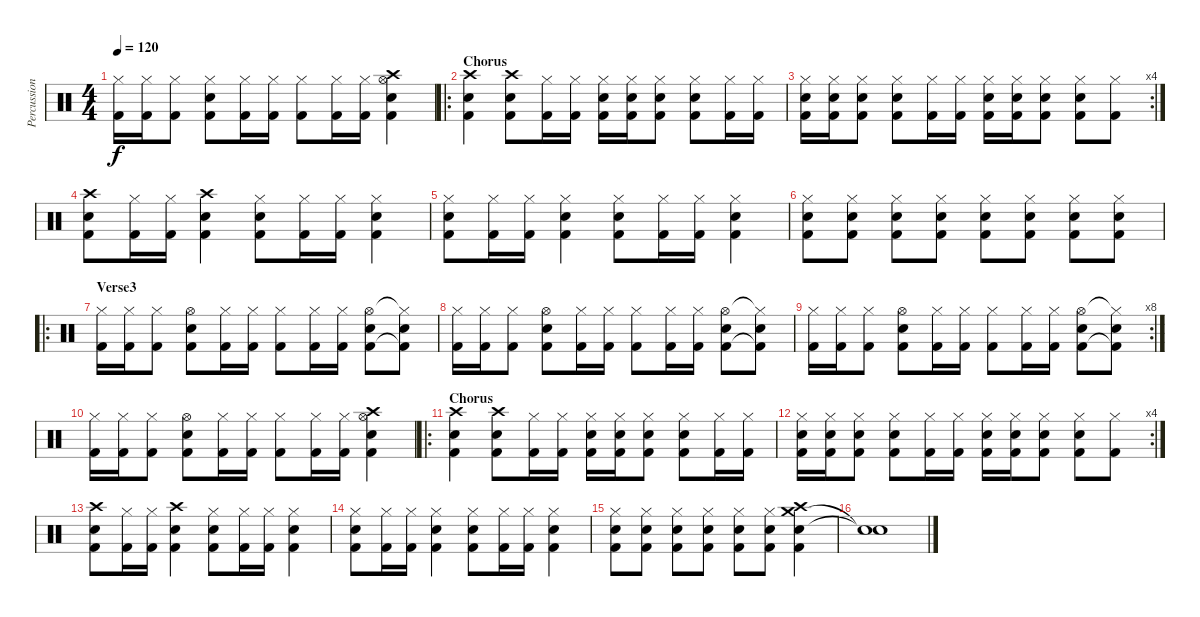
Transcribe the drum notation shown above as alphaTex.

\track ("Percussion" "Percussion") {instrument percussion}
\staff {score}
\articulation defaults
\ts (4 4)
\tempo 120
\clef neutral
\ks c
("Hi-Hat (closed)" "Kick (hit) 2").16{dy f} ("Hi-Hat (closed)" "Kick (hit) 2").16 ("Hi-Hat (closed)" "Kick (hit) 2").8 ("Hi-Hat (closed)" "Kick (hit) 2" "Electric Snare (hit)").8 ("Hi-Hat (closed)" "Kick (hit) 2").16 ("Hi-Hat (closed)" "Kick (hit) 2").16 ("Hi-Hat (closed)" "Kick (hit) 2").8 ("Hi-Hat (closed)" "Kick (hit) 2").16 ("Hi-Hat (closed)" "Kick (hit) 2").16 ("Hi-Hat (open)" "Kick (hit) 2" "Electric Snare (hit)" "Crash high (hit)").4 |
\ro
\section ("" "Chorus")
("Crash high (hit)" "Electric Snare (hit)" "Kick (hit) 2").4 ("Crash high (hit)" "Electric Snare (hit)" "Kick (hit) 2").8 ("Hi-Hat (closed)" "Kick (hit) 2").16 ("Hi-Hat (closed)" "Kick (hit) 2").16 ("Hi-Hat (closed)" "Kick (hit) 2" "Electric Snare (hit)").16 ("Hi-Hat (closed)" "Kick (hit) 2" "Electric Snare (hit)").16 ("Hi-Hat (closed)" "Kick (hit) 2" "Electric Snare (hit)").8 ("Hi-Hat (closed)" "Kick (hit) 2" "Electric Snare (hit)").8 ("Hi-Hat (closed)" "Kick (hit) 2").16 ("Hi-Hat (closed)" "Kick (hit) 2").16 |
\rc 4
("Hi-Hat (closed)" "Kick (hit) 2" "Electric Snare (hit)").16 ("Hi-Hat (closed)" "Kick (hit) 2" "Electric Snare (hit)").16 ("Hi-Hat (closed)" "Kick (hit) 2" "Electric Snare (hit)").8 ("Hi-Hat (closed)" "Kick (hit) 2" "Electric Snare (hit)").8 ("Hi-Hat (closed)" "Kick (hit) 2").16 ("Hi-Hat (closed)" "Kick (hit) 2").16 ("Hi-Hat (closed)" "Kick (hit) 2" "Electric Snare (hit)").16 ("Hi-Hat (closed)" "Kick (hit) 2" "Electric Snare (hit)").16 ("Hi-Hat (closed)" "Kick (hit) 2" "Electric Snare (hit)").8 ("Hi-Hat (closed)" "Kick (hit) 2" "Electric Snare (hit)").8 ("Hi-Hat (closed)" "Kick (hit) 2").8 |
("Crash high (hit)" "Electric Snare (hit)" "Kick (hit) 2").8 ("Kick (hit) 2" "Hi-Hat (closed)").16 ("Kick (hit) 2" "Hi-Hat (closed)").16 ("Crash high (hit)" "Electric Snare (hit)" "Kick (hit) 2").4 ("Hi-Hat (closed)" "Kick (hit) 2" "Electric Snare (hit)").8 ("Hi-Hat (closed)" "Kick (hit) 2").16 ("Hi-Hat (closed)" "Kick (hit) 2").16 ("Hi-Hat (closed)" "Kick (hit) 2" "Electric Snare (hit)").4 |
("Hi-Hat (closed)" "Kick (hit) 2" "Electric Snare (hit)").8 ("Hi-Hat (closed)" "Kick (hit) 2").16 ("Hi-Hat (closed)" "Kick (hit) 2").16 ("Hi-Hat (closed)" "Kick (hit) 2" "Electric Snare (hit)").4 ("Hi-Hat (closed)" "Kick (hit) 2" "Electric Snare (hit)").8 ("Hi-Hat (closed)" "Kick (hit) 2").16 ("Hi-Hat (closed)" "Kick (hit) 2").16 ("Hi-Hat (closed)" "Kick (hit) 2" "Electric Snare (hit)").4 |
("Hi-Hat (closed)" "Electric Snare (hit)" "Kick (hit) 2").8 ("Hi-Hat (closed)" "Electric Snare (hit)" "Kick (hit) 2").8 ("Hi-Hat (closed)" "Electric Snare (hit)" "Kick (hit) 2").8 ("Hi-Hat (closed)" "Electric Snare (hit)" "Kick (hit) 2").8 ("Hi-Hat (closed)" "Electric Snare (hit)" "Kick (hit) 2").8 ("Hi-Hat (closed)" "Electric Snare (hit)" "Kick (hit) 2").8 ("Hi-Hat (closed)" "Electric Snare (hit)" "Kick (hit) 2").8 ("Hi-Hat (closed)" "Electric Snare (hit)" "Kick (hit) 2").8 |
\ro
\section ("" "Verse3")
("Hi-Hat (closed)" "Kick (hit) 2").16 ("Hi-Hat (closed)" "Kick (hit) 2").16 ("Hi-Hat (closed)" "Kick (hit) 2").8 ("Hi-Hat (open)" "Kick (hit) 2" "Electric Snare (hit)").8 ("Hi-Hat (closed)" "Kick (hit) 2").16 ("Hi-Hat (closed)" "Kick (hit) 2").16 ("Hi-Hat (closed)" "Kick (hit) 2").8 ("Hi-Hat (closed)" "Kick (hit) 2").16 ("Hi-Hat (closed)" "Kick (hit) 2").16 ("Hi-Hat (open)" "Kick (hit) 2" "Electric Snare (hit)").8 ("Hi-Hat (closed)"{t} "Kick (hit) 2"{t} "Electric Snare (hit)").8 |
("Hi-Hat (closed)" "Kick (hit) 2").16 ("Hi-Hat (closed)" "Kick (hit) 2").16 ("Hi-Hat (closed)" "Kick (hit) 2").8 ("Hi-Hat (open)" "Kick (hit) 2" "Electric Snare (hit)").8 ("Hi-Hat (closed)" "Kick (hit) 2").16 ("Hi-Hat (closed)" "Kick (hit) 2").16 ("Hi-Hat (closed)" "Kick (hit) 2").8 ("Hi-Hat (closed)" "Kick (hit) 2").16 ("Hi-Hat (closed)" "Kick (hit) 2").16 ("Hi-Hat (open)" "Kick (hit) 2" "Electric Snare (hit)").8 ("Hi-Hat (closed)"{t} "Kick (hit) 2"{t} "Electric Snare (hit)").8 |
\rc 8
("Hi-Hat (closed)" "Kick (hit) 2").16 ("Hi-Hat (closed)" "Kick (hit) 2").16 ("Hi-Hat (closed)" "Kick (hit) 2").8 ("Hi-Hat (open)" "Kick (hit) 2" "Electric Snare (hit)").8 ("Hi-Hat (closed)" "Kick (hit) 2").16 ("Hi-Hat (closed)" "Kick (hit) 2").16 ("Hi-Hat (closed)" "Kick (hit) 2").8 ("Hi-Hat (closed)" "Kick (hit) 2").16 ("Hi-Hat (closed)" "Kick (hit) 2").16 ("Hi-Hat (open)" "Kick (hit) 2" "Electric Snare (hit)").8 ("Hi-Hat (closed)"{t} "Kick (hit) 2"{t} "Electric Snare (hit)").8 |
("Hi-Hat (closed)" "Kick (hit) 2").16 ("Hi-Hat (closed)" "Kick (hit) 2").16 ("Hi-Hat (closed)" "Kick (hit) 2").8 ("Hi-Hat (open)" "Kick (hit) 2" "Electric Snare (hit)").8 ("Hi-Hat (closed)" "Kick (hit) 2").16 ("Hi-Hat (closed)" "Kick (hit) 2").16 ("Hi-Hat (closed)" "Kick (hit) 2").8 ("Hi-Hat (closed)" "Kick (hit) 2").16 ("Hi-Hat (closed)" "Kick (hit) 2").16 ("Hi-Hat (open)" "Kick (hit) 2" "Electric Snare (hit)" "Crash high (hit)").4 |
\ro
\section ("" "Chorus")
("Crash high (hit)" "Electric Snare (hit)" "Kick (hit) 2").4 ("Crash high (hit)" "Electric Snare (hit)" "Kick (hit) 2").8 ("Hi-Hat (closed)" "Kick (hit) 2").16 ("Hi-Hat (closed)" "Kick (hit) 2").16 ("Hi-Hat (closed)" "Kick (hit) 2" "Electric Snare (hit)").16 ("Hi-Hat (closed)" "Kick (hit) 2" "Electric Snare (hit)").16 ("Hi-Hat (closed)" "Kick (hit) 2" "Electric Snare (hit)").8 ("Hi-Hat (closed)" "Kick (hit) 2" "Electric Snare (hit)").8 ("Hi-Hat (closed)" "Kick (hit) 2").16 ("Hi-Hat (closed)" "Kick (hit) 2").16 |
\rc 4
("Hi-Hat (closed)" "Kick (hit) 2" "Electric Snare (hit)").16 ("Hi-Hat (closed)" "Kick (hit) 2" "Electric Snare (hit)").16 ("Hi-Hat (closed)" "Kick (hit) 2" "Electric Snare (hit)").8 ("Hi-Hat (closed)" "Kick (hit) 2" "Electric Snare (hit)").8 ("Hi-Hat (closed)" "Kick (hit) 2").16 ("Hi-Hat (closed)" "Kick (hit) 2").16 ("Hi-Hat (closed)" "Kick (hit) 2" "Electric Snare (hit)").16 ("Hi-Hat (closed)" "Kick (hit) 2" "Electric Snare (hit)").16 ("Hi-Hat (closed)" "Kick (hit) 2" "Electric Snare (hit)").8 ("Hi-Hat (closed)" "Kick (hit) 2" "Electric Snare (hit)").8 ("Hi-Hat (closed)" "Kick (hit) 2").8 |
("Crash high (hit)" "Electric Snare (hit)" "Kick (hit) 2").8 ("Kick (hit) 2" "Hi-Hat (closed)").16 ("Kick (hit) 2" "Hi-Hat (closed)").16 ("Crash high (hit)" "Electric Snare (hit)" "Kick (hit) 2").4 ("Hi-Hat (closed)" "Kick (hit) 2" "Electric Snare (hit)").8 ("Hi-Hat (closed)" "Kick (hit) 2").16 ("Hi-Hat (closed)" "Kick (hit) 2").16 ("Hi-Hat (closed)" "Kick (hit) 2" "Electric Snare (hit)").4 |
("Hi-Hat (closed)" "Kick (hit) 2" "Electric Snare (hit)").8 ("Hi-Hat (closed)" "Kick (hit) 2").16 ("Hi-Hat (closed)" "Kick (hit) 2").16 ("Hi-Hat (closed)" "Kick (hit) 2" "Electric Snare (hit)").4 ("Hi-Hat (closed)" "Kick (hit) 2" "Electric Snare (hit)").8 ("Hi-Hat (closed)" "Kick (hit) 2").16 ("Hi-Hat (closed)" "Kick (hit) 2").16 ("Hi-Hat (closed)" "Kick (hit) 2" "Electric Snare (hit)").4 |
("Hi-Hat (closed)" "Electric Snare (hit)" "Kick (hit) 2").8 ("Hi-Hat (closed)" "Electric Snare (hit)" "Kick (hit) 2").8 ("Hi-Hat (closed)" "Electric Snare (hit)" "Kick (hit) 2").8 ("Hi-Hat (closed)" "Electric Snare (hit)" "Kick (hit) 2").8 ("Hi-Hat (closed)" "Electric Snare (hit)" "Kick (hit) 2").8 ("Hi-Hat (closed)" "Electric Snare (hit)" "Kick (hit) 2").8 ("Crash medium (hit)" "Electric Snare (hit)" "Kick (hit) 2" "Crash high (hit)").4 |
("Snare (hit)"{t} "Snare (hit)"{t}).1
